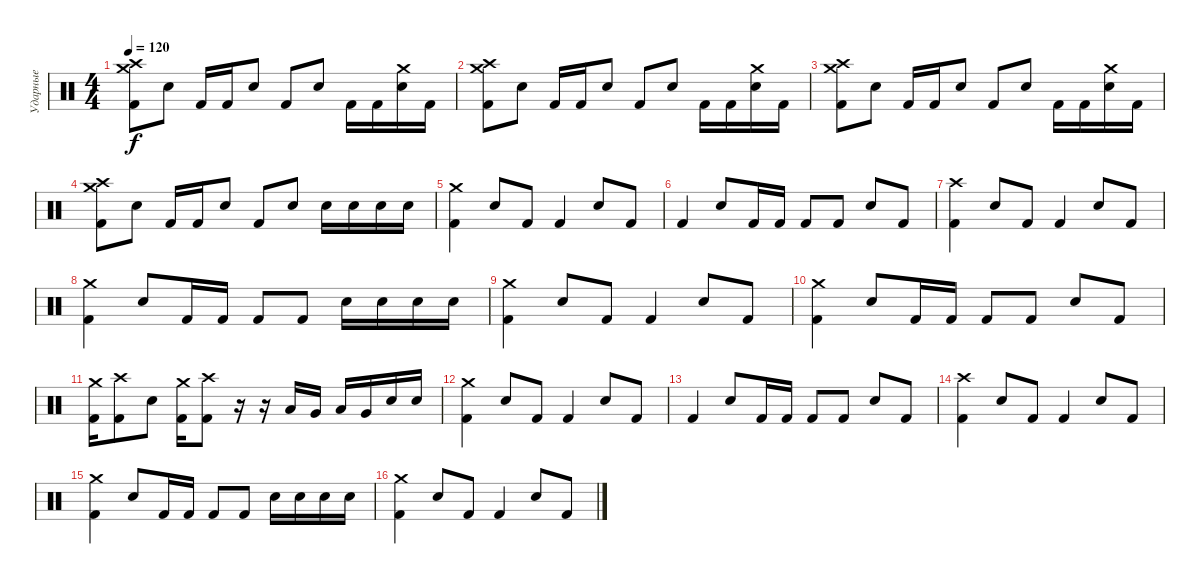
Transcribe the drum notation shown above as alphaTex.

\track ("Ударные" "Ударные") {instrument percussion}
\staff {score}
\articulation defaults
\ts (4 4)
\tempo 120
\clef neutral
\ks c
("Kick (hit) 2" "Crash medium (hit)" "Crash high (hit)").8{dy f} "Snare (hit) 2".8 "Kick (hit) 2".16 "Kick (hit) 2".16 "Snare (hit) 2".8 "Kick (hit) 2".8 "Snare (hit) 2".8 "Kick (hit) 2".16 "Kick (hit) 2".16 ("Snare (hit) 2" "Crash medium (hit)").16 "Kick (hit) 2".16 |
("Kick (hit) 2" "Crash medium (hit)" "Crash high (hit)").8 "Snare (hit) 2".8 "Kick (hit) 2".16 "Kick (hit) 2".16 "Snare (hit) 2".8 "Kick (hit) 2".8 "Snare (hit) 2".8 "Kick (hit) 2".16 "Kick (hit) 2".16 ("Snare (hit) 2" "Crash medium (hit)").16 "Kick (hit) 2".16 |
("Kick (hit) 2" "Crash medium (hit)" "Crash high (hit)").8 "Snare (hit) 2".8 "Kick (hit) 2".16 "Kick (hit) 2".16 "Snare (hit) 2".8 "Kick (hit) 2".8 "Snare (hit) 2".8 "Kick (hit) 2".16 "Kick (hit) 2".16 ("Snare (hit) 2" "Crash medium (hit)").16 "Kick (hit) 2".16 |
("Kick (hit) 2" "Crash medium (hit)" "Crash high (hit)").8 "Snare (hit) 2".8 "Kick (hit) 2".16 "Kick (hit) 2".16 "Snare (hit) 2".8 "Kick (hit) 2".8 "Snare (hit) 2".8 "Snare (hit) 2".16 "Snare (hit) 2".16 "Snare (hit) 2".16 "Snare (hit) 2".16 |
("Kick (hit) 2" "Crash medium (hit)").4 "Snare (hit) 2".8 "Kick (hit) 2".8 "Kick (hit) 2".4 "Snare (hit) 2".8 "Kick (hit) 2".8 |
"Kick (hit) 2".4 "Snare (hit) 2".8 "Kick (hit) 2".16 "Kick (hit) 2".16 "Kick (hit) 2".8 "Kick (hit) 2".8 "Snare (hit) 2".8 "Kick (hit) 2".8 |
("Kick (hit) 2" "Crash high (hit)").4 "Snare (hit) 2".8 "Kick (hit) 2".8 "Kick (hit) 2".4 "Snare (hit) 2".8 "Kick (hit) 2".8 |
("Kick (hit) 2" "Crash medium (hit)").4 "Snare (hit) 2".8 "Kick (hit) 2".16 "Kick (hit) 2".16 "Kick (hit) 2".8 "Kick (hit) 2".8 "Snare (hit) 2".16 "Snare (hit) 2".16 "Snare (hit) 2".16 "Snare (hit) 2".16 |
("Kick (hit) 2" "Crash medium (hit)").4 "Snare (hit) 2".8 "Kick (hit) 2".8 "Kick (hit) 2".4 "Snare (hit) 2".8 "Kick (hit) 2".8 |
("Kick (hit) 2" "Crash medium (hit)").4 "Snare (hit) 2".8 "Kick (hit) 2".16 "Kick (hit) 2".16 "Kick (hit) 2".8 "Kick (hit) 2".8 "Snare (hit) 2".8 "Kick (hit) 2".8 |
("Kick (hit) 2" "Crash medium (hit)").16 ("Kick (hit) 2" "Crash high (hit)").8 "Snare (hit) 2".8 ("Kick (hit) 2" "Crash medium (hit)").16 ("Kick (hit) 2" "Crash high (hit)").8 r.16 r.16 "Low Floor Tom (hit)".16 "Very Low Tom (hit)".16 "Low Floor Tom (hit)".16 "Very Low Tom (hit)".16 "Snare (hit) 2".16 "Snare (hit) 2".16 |
("Kick (hit) 2" "Crash medium (hit)").4 "Snare (hit) 2".8 "Kick (hit) 2".8 "Kick (hit) 2".4 "Snare (hit) 2".8 "Kick (hit) 2".8 |
"Kick (hit) 2".4 "Snare (hit) 2".8 "Kick (hit) 2".16 "Kick (hit) 2".16 "Kick (hit) 2".8 "Kick (hit) 2".8 "Snare (hit) 2".8 "Kick (hit) 2".8 |
("Kick (hit) 2" "Crash high (hit)").4 "Snare (hit) 2".8 "Kick (hit) 2".8 "Kick (hit) 2".4 "Snare (hit) 2".8 "Kick (hit) 2".8 |
("Kick (hit) 2" "Crash medium (hit)").4 "Snare (hit) 2".8 "Kick (hit) 2".16 "Kick (hit) 2".16 "Kick (hit) 2".8 "Kick (hit) 2".8 "Snare (hit) 2".16 "Snare (hit) 2".16 "Snare (hit) 2".16 "Snare (hit) 2".16 |
("Kick (hit) 2" "Crash medium (hit)").4 "Snare (hit) 2".8 "Kick (hit) 2".8 "Kick (hit) 2".4 "Snare (hit) 2".8 "Kick (hit) 2".8
